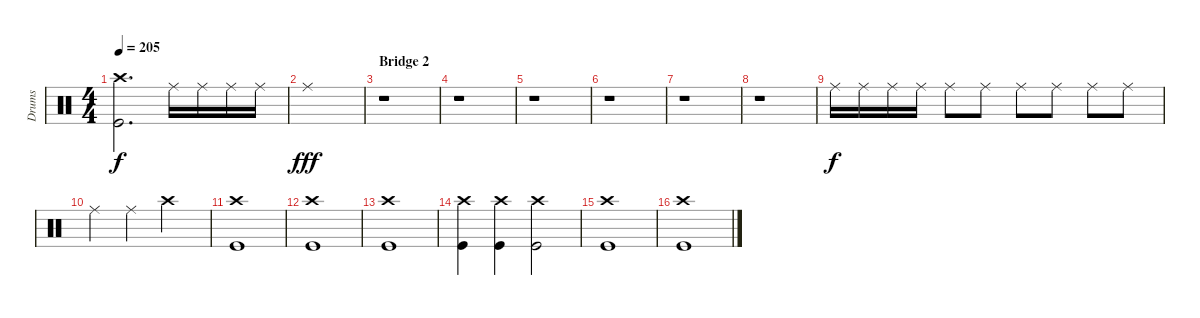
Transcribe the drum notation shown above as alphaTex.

\track ("Drums" "Drums") {instrument percussion}
\staff {score}
\articulation defaults
\ts (4 4)
\tempo 205
\clef neutral
\ks c
("Crash high (hit)" "Kick (hit)").2{d dy f} "Ride (middle)".16 "Ride (middle)".16 "Ride (middle)".16 "Ride (middle)".16 |
"Ride (middle)".1{dy fff} |
\section ("" "Bridge 2")
r.1 |
r.1 |
r.1 |
r.1 |
r.1 |
r.1 |
"Ride (middle)".16{dy f} "Ride (middle)".16 "Ride (middle)".16 "Ride (middle)".16 "Ride (middle)".8 "Ride (middle)".8 "Ride (middle)".8 "Ride (middle)".8 "Ride (middle)".8 "Ride (middle)".8 |
"Ride (middle)".4 "Ride (middle)".4 "Crash high (hit)".2 |
("Crash high (hit)" "Kick (hit)").1 |
("Crash high (hit)" "Kick (hit)").1 |
("Crash high (hit)" "Kick (hit)").1 |
("Crash high (hit)" "Kick (hit)").4 ("Crash high (hit)" "Kick (hit)").4 ("Crash high (hit)" "Kick (hit)").2 |
("Crash high (hit)" "Kick (hit)").1 |
("Crash high (hit)" "Kick (hit)").1
